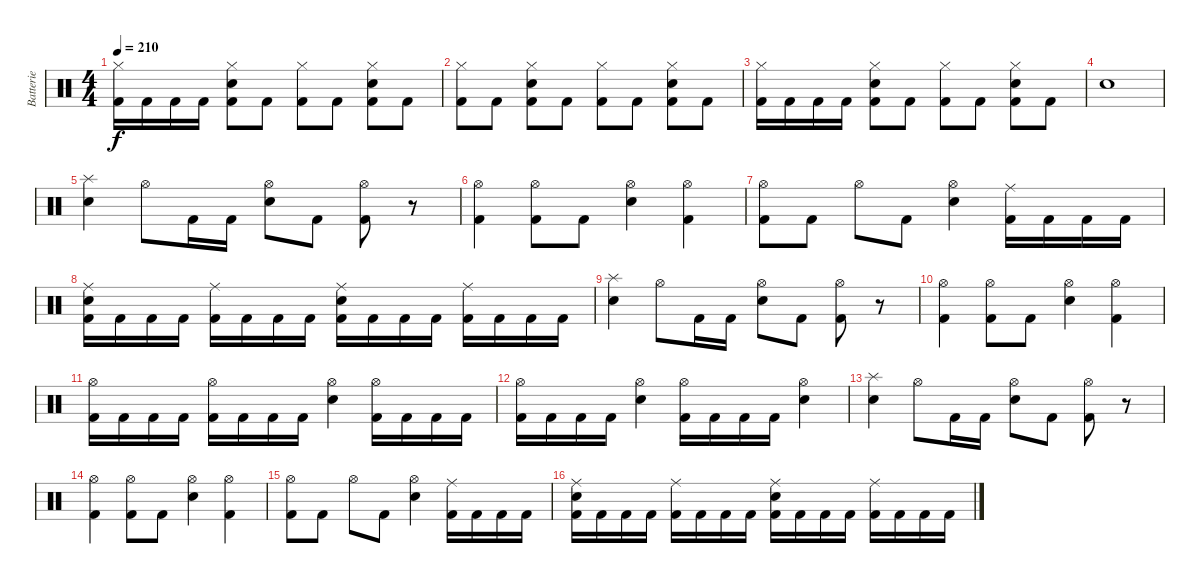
\track ("Batterie" "Batterie") {instrument percussion}
\staff {score}
\articulation defaults
\ts (4 4)
\tempo 210
\clef neutral
\ks c
("Hi-Hat (closed)" "Kick (hit) 2").16{dy f} "Kick (hit) 2".16 "Kick (hit) 2".16 "Kick (hit) 2".16 ("Hi-Hat (closed)" "Electric Snare (hit)" "Kick (hit) 2").8 "Kick (hit) 2".8 ("Hi-Hat (closed)" "Kick (hit) 2").8 "Kick (hit) 2".8 ("Hi-Hat (closed)" "Electric Snare (hit)" "Kick (hit) 2").8 "Kick (hit) 2".8 |
("Hi-Hat (closed)" "Kick (hit) 2").8 "Kick (hit) 2".8 ("Hi-Hat (closed)" "Electric Snare (hit)" "Kick (hit) 2").8 "Kick (hit) 2".8 ("Hi-Hat (closed)" "Kick (hit) 2").8 "Kick (hit) 2".8 ("Hi-Hat (closed)" "Electric Snare (hit)" "Kick (hit) 2").8 "Kick (hit) 2".8 |
("Hi-Hat (closed)" "Kick (hit) 2").16 "Kick (hit) 2".16 "Kick (hit) 2".16 "Kick (hit) 2".16 ("Hi-Hat (closed)" "Electric Snare (hit)" "Kick (hit) 2").8 "Kick (hit) 2".8 ("Hi-Hat (closed)" "Kick (hit) 2").8 "Kick (hit) 2".8 ("Hi-Hat (closed)" "Electric Snare (hit)" "Kick (hit) 2").8 "Kick (hit) 2".8 |
"Electric Snare (hit)".1 |
("Splash (hit)" "Electric Snare (hit)").4 "Hi-Hat (open)".8 "Kick (hit) 2".16 "Kick (hit) 2".16 ("Hi-Hat (open)" "Electric Snare (hit)").8 "Kick (hit) 2".8 ("Hi-Hat (open)" "Kick (hit) 2").8 r.8 |
("Hi-Hat (open)" "Kick (hit) 2").4 ("Hi-Hat (open)" "Kick (hit) 2").8 "Kick (hit) 2".8 ("Hi-Hat (open)" "Electric Snare (hit)").4 ("Hi-Hat (open)" "Kick (hit) 2").4 |
("Hi-Hat (open)" "Kick (hit) 2").8 "Kick (hit) 2".8 "Hi-Hat (open)".8 "Kick (hit) 2".8 ("Hi-Hat (open)" "Electric Snare (hit)").4 ("Ride (middle)" "Kick (hit) 2").16 "Kick (hit) 2".16 "Kick (hit) 2".16 "Kick (hit) 2".16 |
("Ride (middle)" "Electric Snare (hit)" "Kick (hit) 2").16 "Kick (hit) 2".16 "Kick (hit) 2".16 "Kick (hit) 2".16 ("Ride (middle)" "Kick (hit) 2").16 "Kick (hit) 2".16 "Kick (hit) 2".16 "Kick (hit) 2".16 ("Ride (middle)" "Electric Snare (hit)" "Kick (hit) 2").16 "Kick (hit) 2".16 "Kick (hit) 2".16 "Kick (hit) 2".16 ("Ride (middle)" "Kick (hit) 2").16 "Kick (hit) 2".16 "Kick (hit) 2".16 "Kick (hit) 2".16 |
("Splash (hit)" "Electric Snare (hit)").4 "Hi-Hat (open)".8 "Kick (hit) 2".16 "Kick (hit) 2".16 ("Hi-Hat (open)" "Electric Snare (hit)").8 "Kick (hit) 2".8 ("Hi-Hat (open)" "Kick (hit) 2").8 r.8 |
("Hi-Hat (open)" "Kick (hit) 2").4 ("Hi-Hat (open)" "Kick (hit) 2").8 "Kick (hit) 2".8 ("Hi-Hat (open)" "Electric Snare (hit)").4 ("Hi-Hat (open)" "Kick (hit) 2").4 |
("Hi-Hat (open)" "Kick (hit) 2").16 "Kick (hit) 2".16 "Kick (hit) 2".16 "Kick (hit) 2".16 ("Hi-Hat (open)" "Kick (hit) 2").16 "Kick (hit) 2".16 "Kick (hit) 2".16 "Kick (hit) 2".16 ("Hi-Hat (open)" "Electric Snare (hit)").4 ("Hi-Hat (open)" "Kick (hit) 2").16 "Kick (hit) 2".16 "Kick (hit) 2".16 "Kick (hit) 2".16 |
("Hi-Hat (open)" "Kick (hit) 2").16 "Kick (hit) 2".16 "Kick (hit) 2".16 "Kick (hit) 2".16 ("Hi-Hat (open)" "Electric Snare (hit)").4 ("Hi-Hat (open)" "Kick (hit) 2").16 "Kick (hit) 2".16 "Kick (hit) 2".16 "Kick (hit) 2".16 ("Hi-Hat (open)" "Electric Snare (hit)").4 |
("Splash (hit)" "Electric Snare (hit)").4 "Hi-Hat (open)".8 "Kick (hit) 2".16 "Kick (hit) 2".16 ("Hi-Hat (open)" "Electric Snare (hit)").8 "Kick (hit) 2".8 ("Hi-Hat (open)" "Kick (hit) 2").8 r.8 |
("Hi-Hat (open)" "Kick (hit) 2").4 ("Hi-Hat (open)" "Kick (hit) 2").8 "Kick (hit) 2".8 ("Hi-Hat (open)" "Electric Snare (hit)").4 ("Hi-Hat (open)" "Kick (hit) 2").4 |
("Hi-Hat (open)" "Kick (hit) 2").8 "Kick (hit) 2".8 "Hi-Hat (open)".8 "Kick (hit) 2".8 ("Hi-Hat (open)" "Electric Snare (hit)").4 ("Ride (middle)" "Kick (hit) 2").16 "Kick (hit) 2".16 "Kick (hit) 2".16 "Kick (hit) 2".16 |
("Ride (middle)" "Electric Snare (hit)" "Kick (hit) 2").16 "Kick (hit) 2".16 "Kick (hit) 2".16 "Kick (hit) 2".16 ("Ride (middle)" "Kick (hit) 2").16 "Kick (hit) 2".16 "Kick (hit) 2".16 "Kick (hit) 2".16 ("Ride (middle)" "Electric Snare (hit)" "Kick (hit) 2").16 "Kick (hit) 2".16 "Kick (hit) 2".16 "Kick (hit) 2".16 ("Ride (middle)" "Kick (hit) 2").16 "Kick (hit) 2".16 "Kick (hit) 2".16 "Kick (hit) 2".16
